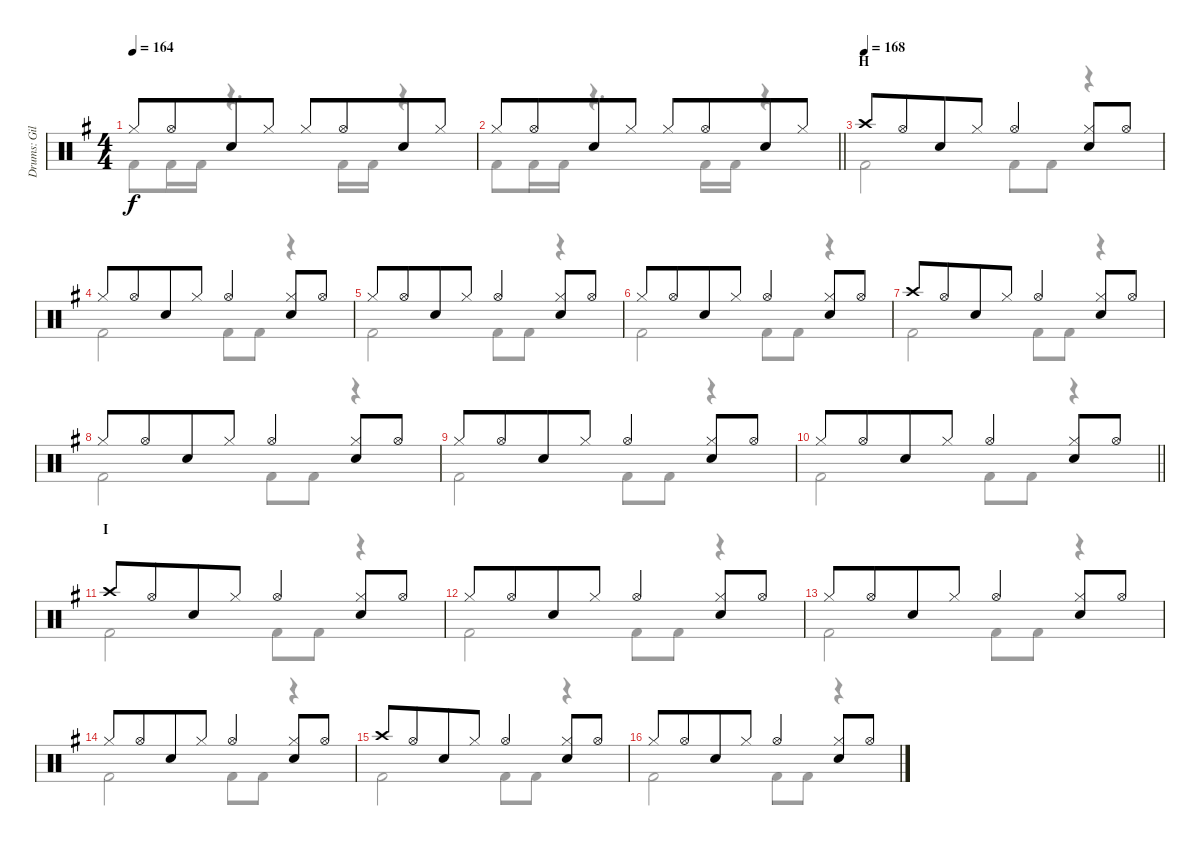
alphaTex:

\track ("Drums: Gil" "Drums: Gil") {instrument percussion}
\staff {score}
\articulation defaults
\voice
\ts (4 4)
\tempo 164
\clef neutral
\ks g "Hi-Hat (closed)".8{dy f} "Hi-Hat (open)".8{beam merge} "Snare (hit) 2".8 "Hi-Hat (closed)".8 "Hi-Hat (closed)".8 "Hi-Hat (open)".8{beam merge} "Snare (hit) 2".8 "Hi-Hat (closed)".8
|
\barLineRight lightlight "Hi-Hat (closed)".8 "Hi-Hat (open)".8{beam merge} "Snare (hit) 2".8 "Hi-Hat (closed)".8 "Hi-Hat (closed)".8 "Hi-Hat (open)".8{beam merge} "Snare (hit) 2".8 "Hi-Hat (closed)".8
|
\section ("" "H")
\tempo (168)
"Crash high (hit)".8 "Hi-Hat (open)".8{beam merge} "Snare (hit) 2".8 "Hi-Hat (closed)".8 "Hi-Hat (open)".4{beam merge} ("Hi-Hat (closed)" "Snare (hit) 2").8 "Hi-Hat (open)".8 |
"Hi-Hat (closed)".8 "Hi-Hat (open)".8{beam merge} "Snare (hit) 2".8 "Hi-Hat (closed)".8 "Hi-Hat (open)".4{beam merge} ("Hi-Hat (closed)" "Snare (hit) 2").8 "Hi-Hat (open)".8 |
"Hi-Hat (closed)".8 "Hi-Hat (open)".8{beam merge} "Snare (hit) 2".8 "Hi-Hat (closed)".8 "Hi-Hat (open)".4{beam merge} ("Hi-Hat (closed)" "Snare (hit) 2").8 "Hi-Hat (open)".8 |
"Hi-Hat (closed)".8 "Hi-Hat (open)".8{beam merge} "Snare (hit) 2".8 "Hi-Hat (closed)".8 "Hi-Hat (open)".4{beam merge} ("Hi-Hat (closed)" "Snare (hit) 2").8 "Hi-Hat (open)".8 |
"Crash high (hit)".8 "Hi-Hat (open)".8{beam merge} "Snare (hit) 2".8 "Hi-Hat (closed)".8 "Hi-Hat (open)".4{beam merge} ("Hi-Hat (closed)" "Snare (hit) 2").8 "Hi-Hat (open)".8 |
"Hi-Hat (closed)".8 "Hi-Hat (open)".8{beam merge} "Snare (hit) 2".8 "Hi-Hat (closed)".8 "Hi-Hat (open)".4{beam merge} ("Hi-Hat (closed)" "Snare (hit) 2").8 "Hi-Hat (open)".8 |
"Hi-Hat (closed)".8 "Hi-Hat (open)".8{beam merge} "Snare (hit) 2".8 "Hi-Hat (closed)".8 "Hi-Hat (open)".4{beam merge} ("Hi-Hat (closed)" "Snare (hit) 2").8 "Hi-Hat (open)".8 |
\barLineRight lightlight "Hi-Hat (closed)".8 "Hi-Hat (open)".8{beam merge} "Snare (hit) 2".8 "Hi-Hat (closed)".8 "Hi-Hat (open)".4{beam merge}
("Hi-Hat (closed)" "Snare (hit) 2").8 "Hi-Hat (open)".8 |
\section ("" "I")
"Crash high (hit)".8 "Hi-Hat (open)".8{beam merge} "Snare (hit) 2".8 "Hi-Hat (closed)".8 "Hi-Hat (open)".4{beam merge} ("Hi-Hat (closed)" "Snare (hit) 2").8 "Hi-Hat (open)".8 |
"Hi-Hat (closed)".8 "Hi-Hat (open)".8{beam merge} "Snare (hit) 2".8 "Hi-Hat (closed)".8 "Hi-Hat (open)".4{beam merge} ("Hi-Hat (closed)" "Snare (hit) 2").8 "Hi-Hat (open)".8 |
"Hi-Hat (closed)".8 "Hi-Hat (open)".8{beam merge} "Snare (hit) 2".8 "Hi-Hat (closed)".8 "Hi-Hat (open)".4{beam merge} ("Hi-Hat (closed)" "Snare (hit) 2").8 "Hi-Hat (open)".8 |
"Hi-Hat (closed)".8 "Hi-Hat (open)".8{beam merge} "Snare (hit) 2".8 "Hi-Hat (closed)".8 "Hi-Hat (open)".4{beam merge} ("Hi-Hat (closed)" "Snare (hit) 2").8 "Hi-Hat (open)".8 |
"Crash high (hit)".8 "Hi-Hat (open)".8{beam merge} "Snare (hit) 2".8 "Hi-Hat (closed)".8 "Hi-Hat (open)".4{beam merge} ("Hi-Hat (closed)" "Snare (hit) 2").8 "Hi-Hat (open)".8 |
"Hi-Hat (closed)".8 "Hi-Hat (open)".8{beam merge} "Snare (hit) 2".8 "Hi-Hat (closed)".8 "Hi-Hat (open)".4{beam merge} ("Hi-Hat (closed)" "Snare (hit) 2").8 "Hi-Hat (open)".8
\voice
\clef neutral
\ottava regular
\simile none
\ks g "Kick (hit) 2".8{dy f} "Kick (hit) 2".16 "Kick (hit) 2".16
r.4{d} "Kick (hit) 2".16 "Kick (hit) 2".16 r.4 |
\barLineRight lightlight "Kick (hit) 2".8 "Kick (hit) 2".16 "Kick (hit) 2".16
r.4{d} "Kick (hit) 2".16 "Kick (hit) 2".16 r.4 |
"Kick (hit) 2".2 "Kick (hit) 2".8 "Kick (hit) 2".8 r.4 |
"Kick (hit) 2".2 "Kick (hit) 2".8 "Kick (hit) 2".8 r.4 |
"Kick (hit) 2".2 "Kick (hit) 2".8 "Kick (hit) 2".8 r.4 |
"Kick (hit) 2".2 "Kick (hit) 2".8 "Kick (hit) 2".8 r.4 |
"Kick (hit) 2".2 "Kick (hit) 2".8 "Kick (hit) 2".8 r.4 |
"Kick (hit) 2".2 "Kick (hit) 2".8 "Kick (hit) 2".8 r.4 |
"Kick (hit) 2".2 "Kick (hit) 2".8 "Kick (hit) 2".8 r.4 |
\barLineRight lightlight "Kick (hit) 2".2 "Kick (hit) 2".8 "Kick (hit) 2".8
r.4 |
"Kick (hit) 2".2 "Kick (hit) 2".8 "Kick (hit) 2".8 r.4 |
"Kick (hit) 2".2 "Kick (hit) 2".8 "Kick (hit) 2".8 r.4 |
"Kick (hit) 2".2 "Kick (hit) 2".8 "Kick (hit) 2".8 r.4 |
"Kick (hit) 2".2 "Kick (hit) 2".8 "Kick (hit) 2".8 r.4 |
"Kick (hit) 2".2 "Kick (hit) 2".8 "Kick (hit) 2".8 r.4 |
"Kick (hit) 2".2 "Kick (hit) 2".8 "Kick (hit) 2".8 r.4
